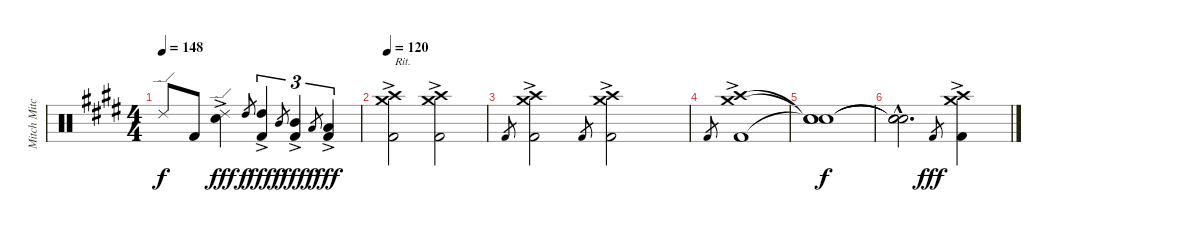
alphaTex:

\track ("Mitch Mitchell" "Mitch Mitc") {instrument percussion}
\staff {score}
\articulation defaults
\ts (4 4)
\tempo 148
\clef neutral
\ks e "Ride (edge) 2".8{dy f} "Kick (hit) 2".8
("Ride (edge) 2"{ac} "Snare (hit) 2"{ac}).4{dy fff} "High Tom (hit)".8{gr dy f} ("High Tom (hit)"{ac} "Kick (hit) 2"{ac}).4{tu (3 2) dy fff} "Mid Tom (hit)".8{gr dy f} ("Mid Tom (hit)"{ac} "Kick (hit) 2"{ac}).4{tu (3 2) dy fff} "Low Tom (hit)".8{gr dy f} ("Low Tom (hit)"{ac} "Kick (hit) 2"{ac}).4{tu (3 2) dy fff} |
\tempo 120
("Crash high (hit)"{ac} "Crash medium (hit)"{ac} "Kick (hit) 2"{ac}).2{txt "Rit."} ("Crash high (hit)"{ac} "Crash medium (hit)"{ac} "Kick (hit) 2"{ac}).2 |
"Kick (hit) 2".8{gr} ("Crash high (hit)"{ac} "Crash medium (hit)"{ac} "Kick (hit) 2"{ac}).2 "Kick (hit) 2".8{gr} ("Crash high (hit)"{ac} "Crash medium (hit)"{ac} "Kick (hit) 2"{ac}).2 |
"Kick (hit) 2".8{gr} ("Crash high (hit)"{ac} "Crash medium (hit)"{ac} "Kick (hit) 2"{ac}).1 |
("Snare (hit)"{t} "Snare (hit)"{t} "Snare (hit)"{t}).1{dy f} |
("Snare (hit)"{hac t} "Snare (hit)"{hac t} "Snare (hit)"{hac t}).2{d} "Kick (hit) 2".8{gr dy fff} ("Crash high (hit)"{ac} "Crash medium (hit)"{ac} "Kick (hit) 2"{ac}).4
